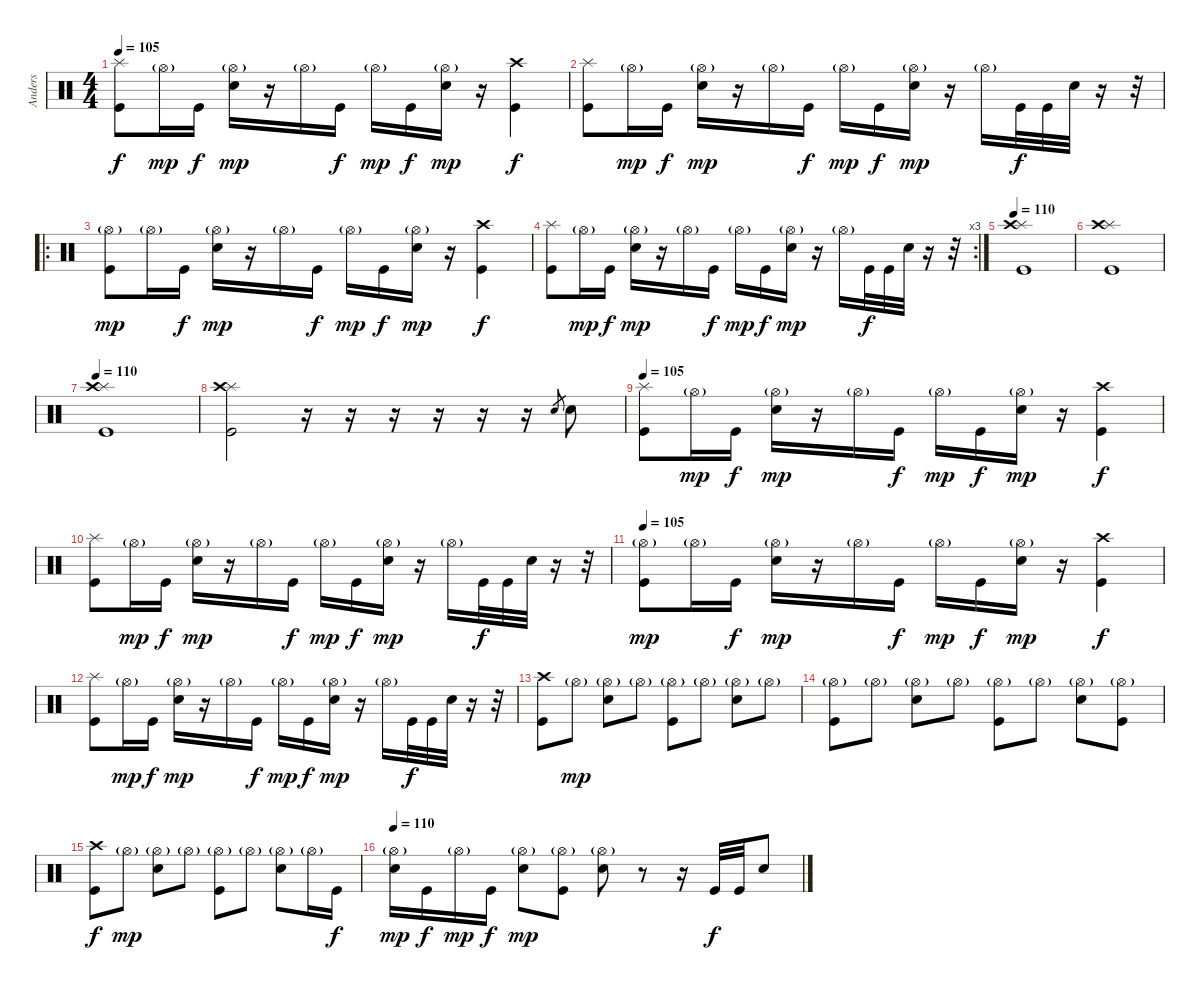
\track ("Anders" "Anders") {instrument percussion}
\staff {score}
\articulation defaults
\ts (4 4)
\tempo 105
\clef neutral
\ks c
("Splash (hit)" "Kick (hit)").8{dy f} "Hi-Hat (open)"{g}.16{dy mp} "Kick (hit)".16{dy f} ("Hi-Hat (open)"{g} "Snare (hit) 2").16{dy mp} r.16 "Hi-Hat (open)"{g}.16 "Kick (hit)".16{dy f} "Hi-Hat (open)"{g}.16{dy mp} "Kick (hit)".16{dy f} ("Hi-Hat (open)"{g} "Snare (hit) 2").16{dy mp} r.16 ("Crash high (hit)" "Kick (hit)").4{dy f} |
("Splash (hit)" "Kick (hit)").8 "Hi-Hat (open)"{g}.16{dy mp} "Kick (hit)".16{dy f} ("Hi-Hat (open)"{g} "Snare (hit) 2").16{dy mp} r.16 "Hi-Hat (open)"{g}.16 "Kick (hit)".16{dy f} "Hi-Hat (open)"{g}.16{dy mp} "Kick (hit)".16{dy f} ("Hi-Hat (open)"{g} "Snare (hit) 2").16{dy mp} r.16 "Hi-Hat (open)"{g}.16 "Kick (hit)".32{dy f} "Kick (hit)".32 "Snare (hit) 2".32 r.16 r.32 |
\ro
("Hi-Hat (open)"{g} "Kick (hit)").8{dy mp} "Hi-Hat (open)"{g}.16 "Kick (hit)".16{dy f} ("Hi-Hat (open)"{g} "Snare (hit) 2").16{dy mp} r.16 "Hi-Hat (open)"{g}.16 "Kick (hit)".16{dy f} "Hi-Hat (open)"{g}.16{dy mp} "Kick (hit)".16{dy f} ("Hi-Hat (open)"{g} "Snare (hit) 2").16{dy mp} r.16 ("Crash high (hit)" "Kick (hit)").4{dy f} |
\rc 3
("Splash (hit)" "Kick (hit)").8 "Hi-Hat (open)"{g}.16{dy mp} "Kick (hit)".16{dy f} ("Hi-Hat (open)"{g} "Snare (hit) 2").16{dy mp} r.16 "Hi-Hat (open)"{g}.16 "Kick (hit)".16{dy f} "Hi-Hat (open)"{g}.16{dy mp} "Kick (hit)".16{dy f} ("Hi-Hat (open)"{g} "Snare (hit) 2").16{dy mp} r.16 "Hi-Hat (open)"{g}.16 "Kick (hit)".32{dy f} "Kick (hit)".32 "Snare (hit) 2".32 r.16 r.32 |
\tempo 110
("Splash (hit)" "Crash high (hit)" "Kick (hit)").1 |
("Splash (hit)" "Crash high (hit)" "Kick (hit)").1 |
\tempo 110
("Splash (hit)" "Crash high (hit)" "Kick (hit)").1 |
("Splash (hit)" "Crash high (hit)" "Kick (hit)").2 r.16 r.16 r.16 r.16 r.16 r.16 "Snare (hit) 2".8{gr} "Snare (hit) 2".8 |
\tempo 105
("Splash (hit)" "Kick (hit)").8 "Hi-Hat (open)"{g}.16{dy mp} "Kick (hit)".16{dy f} ("Hi-Hat (open)"{g} "Snare (hit) 2").16{dy mp} r.16 "Hi-Hat (open)"{g}.16 "Kick (hit)".16{dy f} "Hi-Hat (open)"{g}.16{dy mp} "Kick (hit)".16{dy f} ("Hi-Hat (open)"{g} "Snare (hit) 2").16{dy mp} r.16 ("Crash high (hit)" "Kick (hit)").4{dy f} |
("Splash (hit)" "Kick (hit)").8 "Hi-Hat (open)"{g}.16{dy mp} "Kick (hit)".16{dy f} ("Hi-Hat (open)"{g} "Snare (hit) 2").16{dy mp} r.16 "Hi-Hat (open)"{g}.16 "Kick (hit)".16{dy f} "Hi-Hat (open)"{g}.16{dy mp} "Kick (hit)".16{dy f} ("Hi-Hat (open)"{g} "Snare (hit) 2").16{dy mp} r.16 "Hi-Hat (open)"{g}.16 "Kick (hit)".32{dy f} "Kick (hit)".32 "Snare (hit) 2".32 r.16 r.32 |
\tempo 105
("Hi-Hat (open)"{g} "Kick (hit)").8{dy mp} "Hi-Hat (open)"{g}.16 "Kick (hit)".16{dy f} ("Hi-Hat (open)"{g} "Snare (hit) 2").16{dy mp} r.16 "Hi-Hat (open)"{g}.16 "Kick (hit)".16{dy f} "Hi-Hat (open)"{g}.16{dy mp} "Kick (hit)".16{dy f} ("Hi-Hat (open)"{g} "Snare (hit) 2").16{dy mp} r.16 ("Crash high (hit)" "Kick (hit)").4{dy f} |
("Splash (hit)" "Kick (hit)").8 "Hi-Hat (open)"{g}.16{dy mp} "Kick (hit)".16{dy f} ("Hi-Hat (open)"{g} "Snare (hit) 2").16{dy mp} r.16 "Hi-Hat (open)"{g}.16 "Kick (hit)".16{dy f} "Hi-Hat (open)"{g}.16{dy mp} "Kick (hit)".16{dy f} ("Hi-Hat (open)"{g} "Snare (hit) 2").16{dy mp} r.16 "Hi-Hat (open)"{g}.16 "Kick (hit)".32{dy f} "Kick (hit)".32 "Snare (hit) 2".32 r.16 r.32 |
("Crash high (hit)" "Kick (hit)").8 "Hi-Hat (open)"{g}.8{dy mp} ("Hi-Hat (open)"{g} "Snare (hit) 2").8 "Hi-Hat (open)"{g}.8 ("Hi-Hat (open)"{g} "Kick (hit)").8 "Hi-Hat (open)"{g}.8 ("Hi-Hat (open)"{g} "Snare (hit) 2").8 "Hi-Hat (open)"{g}.8 |
("Hi-Hat (open)"{g} "Kick (hit)").8 "Hi-Hat (open)"{g}.8 ("Hi-Hat (open)"{g} "Snare (hit) 2").8 "Hi-Hat (open)"{g}.8 ("Hi-Hat (open)"{g} "Kick (hit)").8 "Hi-Hat (open)"{g}.8 ("Hi-Hat (open)"{g} "Snare (hit) 2").8 ("Hi-Hat (open)"{g} "Kick (hit)").8 |
("Crash high (hit)" "Kick (hit)").8{dy f} "Hi-Hat (open)"{g}.8{dy mp} ("Hi-Hat (open)"{g} "Snare (hit) 2").8 "Hi-Hat (open)"{g}.8 ("Hi-Hat (open)"{g} "Kick (hit)").8 "Hi-Hat (open)"{g}.8 ("Hi-Hat (open)"{g} "Snare (hit) 2").8 "Hi-Hat (open)"{g}.16 "Kick (hit)".16{dy f} |
\tempo 110
("Hi-Hat (open)"{g} "Snare (hit) 2").16{dy mp} "Kick (hit)".16{dy f} "Hi-Hat (open)"{g}.16{dy mp} "Kick (hit)".16{dy f} ("Hi-Hat (open)"{g} "Snare (hit) 2").8{dy mp} ("Hi-Hat (open)"{g} "Kick (hit)").8 ("Hi-Hat (open)"{g} "Snare (hit) 2").8 r.8 r.16 "Kick (hit)".32{dy f} "Kick (hit)".32 "Snare (hit) 2".8
